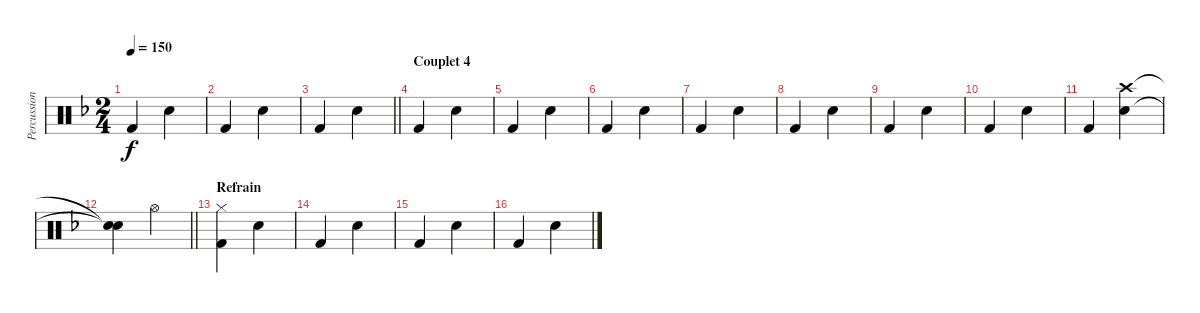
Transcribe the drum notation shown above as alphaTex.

\track ("Percussions" "Percussion") {instrument percussion}
\staff {score}
\articulation defaults
\ts (2 4)
\tempo 150
\clef neutral
\ks f "Kick (hit) 2".4{dy f} "Snare (hit) 2".4
|
"Kick (hit) 2".4 "Snare (hit) 2".4 |
\barLineRight lightlight "Kick (hit) 2".4 "Snare (hit) 2".4
|
\section ("" "Couplet 4")
"Kick (hit) 2".4 "Snare (hit) 2".4 |
"Kick (hit) 2".4 "Snare (hit) 2".4 |
"Kick (hit) 2".4 "Snare (hit) 2".4 |
"Kick (hit) 2".4 "Snare (hit) 2".4 |
"Kick (hit) 2".4 "Snare (hit) 2".4 |
"Kick (hit) 2".4 "Snare (hit) 2".4 |
"Kick (hit) 2".4 "Snare (hit) 2".4 |
"Kick (hit) 2".4 ("Crash high (hit)" "Snare (hit) 2").4 |
\barLineRight lightlight
("Snare (hit)"{t} "Snare (hit)"{t}).4 "Hi-Hat (open)".4 |
\section ("" "Refrain")
("Hi-Hat (closed)" "Kick (hit) 2").4 "Snare (hit) 2".4 |
"Kick (hit) 2".4 "Snare (hit) 2".4 |
"Kick (hit) 2".4 "Snare (hit) 2".4 |
"Kick (hit) 2".4 "Snare (hit) 2".4
